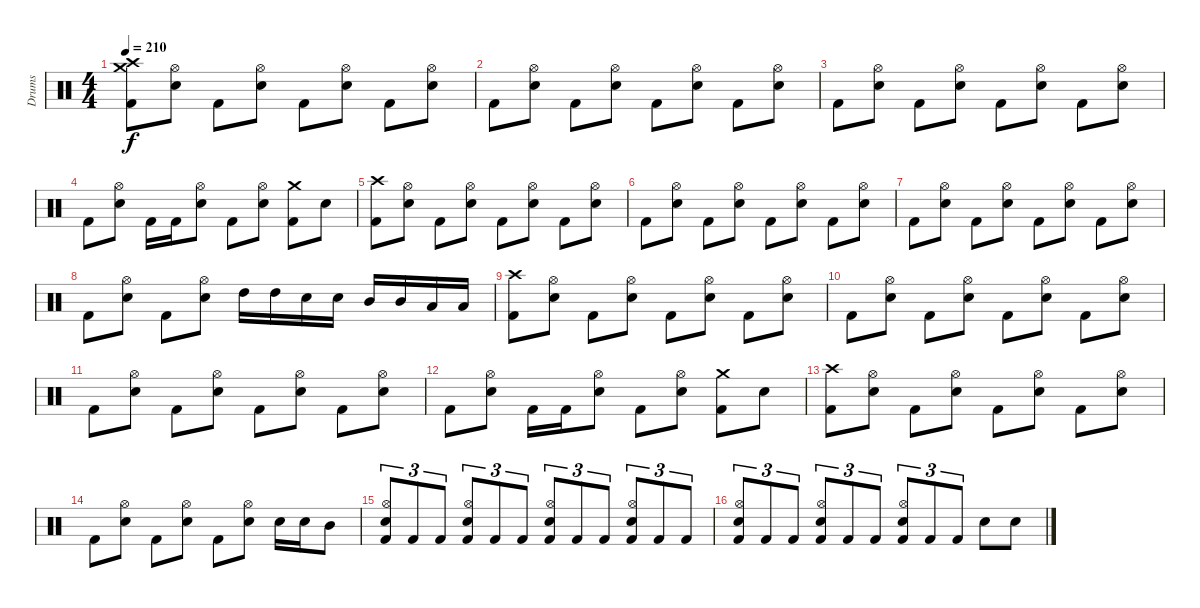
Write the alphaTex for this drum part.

\track ("Drums" "Drums") {instrument percussion}
\staff {score}
\articulation defaults
\ts (4 4)
\tempo 210
\clef neutral
\ks c
("Crash high (hit)" "Crash medium (hit)" "Kick (hit) 2").8{dy f} ("Hi-Hat (open)" "Electric Snare (hit)").8 "Kick (hit) 2".8 ("Hi-Hat (open)" "Electric Snare (hit)").8 "Kick (hit) 2".8 ("Hi-Hat (open)" "Electric Snare (hit)").8 "Kick (hit) 2".8 ("Hi-Hat (open)" "Electric Snare (hit)").8 |
"Kick (hit) 2".8 ("Hi-Hat (open)" "Electric Snare (hit)").8 "Kick (hit) 2".8 ("Hi-Hat (open)" "Electric Snare (hit)").8 "Kick (hit) 2".8 ("Hi-Hat (open)" "Electric Snare (hit)").8 "Kick (hit) 2".8 ("Hi-Hat (open)" "Electric Snare (hit)").8 |
"Kick (hit) 2".8 ("Hi-Hat (open)" "Electric Snare (hit)").8 "Kick (hit) 2".8 ("Hi-Hat (open)" "Electric Snare (hit)").8 "Kick (hit) 2".8 ("Hi-Hat (open)" "Electric Snare (hit)").8 "Kick (hit) 2".8 ("Hi-Hat (open)" "Electric Snare (hit)").8 |
"Kick (hit) 2".8 ("Hi-Hat (open)" "Electric Snare (hit)").8 "Kick (hit) 2".16 "Kick (hit) 2".16 ("Hi-Hat (open)" "Electric Snare (hit)").8 "Kick (hit) 2".8 ("Hi-Hat (open)" "Electric Snare (hit)").8 ("Crash medium (hit)" "Kick (hit) 2").8 "Electric Snare (hit)".8 |
("Crash high (hit)" "Kick (hit) 2").8 ("Hi-Hat (open)" "Electric Snare (hit)").8 "Kick (hit) 2".8 ("Hi-Hat (open)" "Electric Snare (hit)").8 "Kick (hit) 2".8 ("Hi-Hat (open)" "Electric Snare (hit)").8 "Kick (hit) 2".8 ("Hi-Hat (open)" "Electric Snare (hit)").8 |
"Kick (hit) 2".8 ("Hi-Hat (open)" "Electric Snare (hit)").8 "Kick (hit) 2".8 ("Hi-Hat (open)" "Electric Snare (hit)").8 "Kick (hit) 2".8 ("Hi-Hat (open)" "Electric Snare (hit)").8 "Kick (hit) 2".8 ("Hi-Hat (open)" "Electric Snare (hit)").8 |
"Kick (hit) 2".8 ("Hi-Hat (open)" "Electric Snare (hit)").8 "Kick (hit) 2".8 ("Hi-Hat (open)" "Electric Snare (hit)").8 "Kick (hit) 2".8 ("Hi-Hat (open)" "Electric Snare (hit)").8 "Kick (hit) 2".8 ("Hi-Hat (open)" "Electric Snare (hit)").8 |
"Kick (hit) 2".8 ("Hi-Hat (open)" "Electric Snare (hit)").8 "Kick (hit) 2".8 ("Hi-Hat (open)" "Electric Snare (hit)").8 "High Tom (hit)".16 "High Tom (hit)".16 "Electric Snare (hit)".16 "Electric Snare (hit)".16 "Mid Tom (hit)".16 "Mid Tom (hit)".16 "Low Tom (hit)".16 "Low Tom (hit)".16 |
("Crash high (hit)" "Kick (hit) 2").8 ("Hi-Hat (open)" "Electric Snare (hit)").8 "Kick (hit) 2".8 ("Hi-Hat (open)" "Electric Snare (hit)").8 "Kick (hit) 2".8 ("Hi-Hat (open)" "Electric Snare (hit)").8 "Kick (hit) 2".8 ("Hi-Hat (open)" "Electric Snare (hit)").8 |
"Kick (hit) 2".8 ("Hi-Hat (open)" "Electric Snare (hit)").8 "Kick (hit) 2".8 ("Hi-Hat (open)" "Electric Snare (hit)").8 "Kick (hit) 2".8 ("Hi-Hat (open)" "Electric Snare (hit)").8 "Kick (hit) 2".8 ("Hi-Hat (open)" "Electric Snare (hit)").8 |
"Kick (hit) 2".8 ("Hi-Hat (open)" "Electric Snare (hit)").8 "Kick (hit) 2".8 ("Hi-Hat (open)" "Electric Snare (hit)").8 "Kick (hit) 2".8 ("Hi-Hat (open)" "Electric Snare (hit)").8 "Kick (hit) 2".8 ("Hi-Hat (open)" "Electric Snare (hit)").8 |
"Kick (hit) 2".8 ("Hi-Hat (open)" "Electric Snare (hit)").8 "Kick (hit) 2".16 "Kick (hit) 2".16 ("Hi-Hat (open)" "Electric Snare (hit)").8 "Kick (hit) 2".8 ("Hi-Hat (open)" "Electric Snare (hit)").8 ("Crash medium (hit)" "Kick (hit) 2").8 "Electric Snare (hit)".8 |
("Crash high (hit)" "Kick (hit) 2").8 ("Hi-Hat (open)" "Electric Snare (hit)").8 "Kick (hit) 2".8 ("Hi-Hat (open)" "Electric Snare (hit)").8 "Kick (hit) 2".8 ("Hi-Hat (open)" "Electric Snare (hit)").8 "Kick (hit) 2".8 ("Hi-Hat (open)" "Electric Snare (hit)").8 |
"Kick (hit) 2".8 ("Hi-Hat (open)" "Electric Snare (hit)").8 "Kick (hit) 2".8 ("Hi-Hat (open)" "Electric Snare (hit)").8 "Kick (hit) 2".8 ("Hi-Hat (open)" "Electric Snare (hit)").8 "Electric Snare (hit)".16 "Electric Snare (hit)".16 "Mid Tom (hit)".8 |
("Hi-Hat (open)" "Electric Snare (hit)" "Kick (hit) 2").8{tu (3 2)} "Kick (hit) 2".8{tu (3 2)} "Kick (hit) 2".8{tu (3 2)} ("Hi-Hat (open)" "Electric Snare (hit)" "Kick (hit) 2").8{tu (3 2)} "Kick (hit) 2".8{tu (3 2)} "Kick (hit) 2".8{tu (3 2)} ("Hi-Hat (open)" "Electric Snare (hit)" "Kick (hit) 2").8{tu (3 2)} "Kick (hit) 2".8{tu (3 2)} "Kick (hit) 2".8{tu (3 2)} ("Hi-Hat (open)" "Electric Snare (hit)" "Kick (hit) 2").8{tu (3 2)} "Kick (hit) 2".8{tu (3 2)} "Kick (hit) 2".8{tu (3 2)} |
("Hi-Hat (open)" "Electric Snare (hit)" "Kick (hit) 2").8{tu (3 2)} "Kick (hit) 2".8{tu (3 2)} "Kick (hit) 2".8{tu (3 2)} ("Hi-Hat (open)" "Electric Snare (hit)" "Kick (hit) 2").8{tu (3 2)} "Kick (hit) 2".8{tu (3 2)} "Kick (hit) 2".8{tu (3 2)} ("Hi-Hat (open)" "Electric Snare (hit)" "Kick (hit) 2").8{tu (3 2)} "Kick (hit) 2".8{tu (3 2)} "Kick (hit) 2".8{tu (3 2)} "Electric Snare (hit)".8 "Electric Snare (hit)".8
